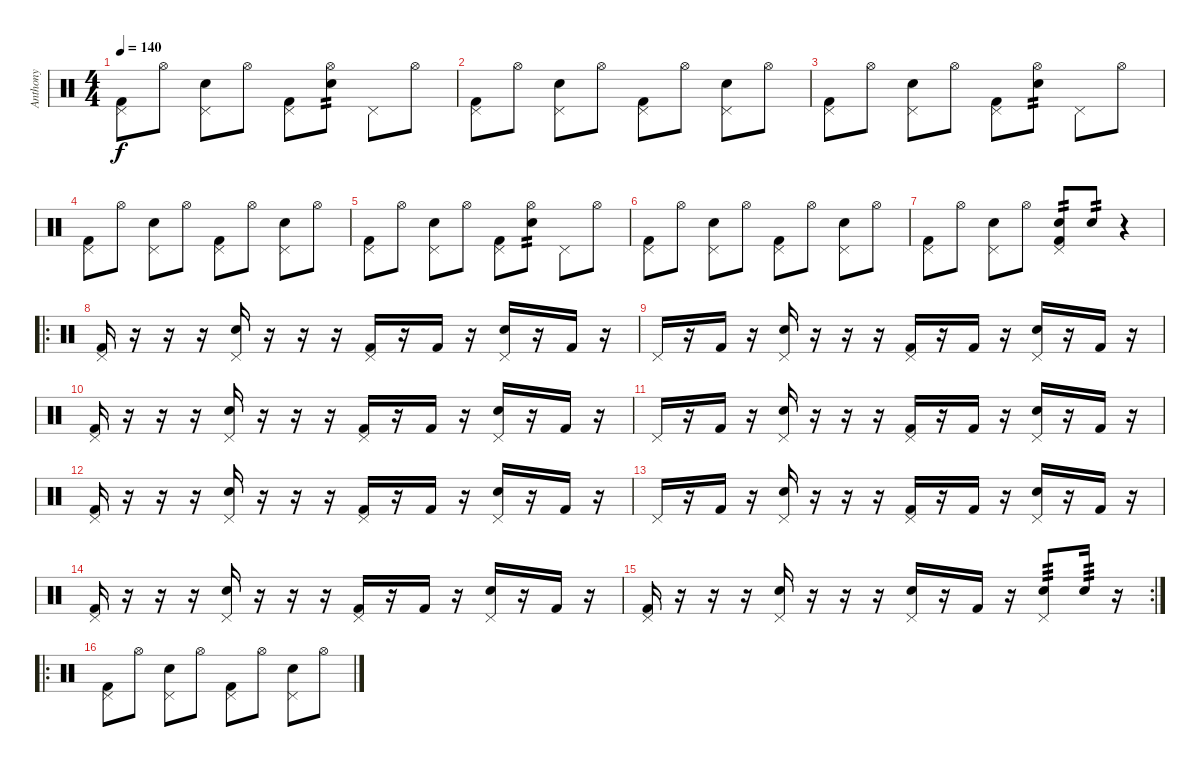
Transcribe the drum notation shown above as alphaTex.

\track ("Anthony" "Anthony") {instrument percussion}
\staff {score}
\articulation defaults
\ts (4 4)
\tempo 140
\clef neutral
\ks c
("Pedal Hi-Hat (hit)" "Kick (hit) 2").8{dy f} "Hi-Hat (open)".8 ("Pedal Hi-Hat (hit)" "Snare (hit) 2").8 "Hi-Hat (open)".8 ("Pedal Hi-Hat (hit)" "Kick (hit) 2").8 ("Hi-Hat (open)" "Snare (hit) 2").8{tp 2} "Pedal Hi-Hat (hit)".8 "Hi-Hat (open)".8 |
("Pedal Hi-Hat (hit)" "Kick (hit) 2").8 "Hi-Hat (open)".8 ("Pedal Hi-Hat (hit)" "Snare (hit) 2").8 "Hi-Hat (open)".8 ("Pedal Hi-Hat (hit)" "Kick (hit) 2").8 "Hi-Hat (open)".8 ("Pedal Hi-Hat (hit)" "Snare (hit) 2").8 "Hi-Hat (open)".8 |
("Pedal Hi-Hat (hit)" "Kick (hit) 2").8 "Hi-Hat (open)".8 ("Pedal Hi-Hat (hit)" "Snare (hit) 2").8 "Hi-Hat (open)".8 ("Pedal Hi-Hat (hit)" "Kick (hit) 2").8 ("Hi-Hat (open)" "Snare (hit) 2").8{tp 2} "Pedal Hi-Hat (hit)".8 "Hi-Hat (open)".8 |
("Pedal Hi-Hat (hit)" "Kick (hit) 2").8 "Hi-Hat (open)".8 ("Pedal Hi-Hat (hit)" "Snare (hit) 2").8 "Hi-Hat (open)".8 ("Pedal Hi-Hat (hit)" "Kick (hit) 2").8 "Hi-Hat (open)".8 ("Pedal Hi-Hat (hit)" "Snare (hit) 2").8 "Hi-Hat (open)".8 |
("Pedal Hi-Hat (hit)" "Kick (hit) 2").8 "Hi-Hat (open)".8 ("Pedal Hi-Hat (hit)" "Snare (hit) 2").8 "Hi-Hat (open)".8 ("Pedal Hi-Hat (hit)" "Kick (hit) 2").8 ("Hi-Hat (open)" "Snare (hit) 2").8{tp 2} "Pedal Hi-Hat (hit)".8 "Hi-Hat (open)".8 |
("Pedal Hi-Hat (hit)" "Kick (hit) 2").8 "Hi-Hat (open)".8 ("Pedal Hi-Hat (hit)" "Snare (hit) 2").8 "Hi-Hat (open)".8 ("Pedal Hi-Hat (hit)" "Kick (hit) 2").8 "Hi-Hat (open)".8 ("Pedal Hi-Hat (hit)" "Snare (hit) 2").8 "Hi-Hat (open)".8 |
("Pedal Hi-Hat (hit)" "Kick (hit) 2").8 "Hi-Hat (open)".8 ("Pedal Hi-Hat (hit)" "Snare (hit) 2").8 "Hi-Hat (open)".8 ("Pedal Hi-Hat (hit)" "Snare (hit) 2" "Kick (hit) 2").8{tp 2} "Snare (hit) 2".8{tp 2} r.4 |
\ro
("Pedal Hi-Hat (hit)" "Kick (hit) 2").16 r.16 r.16 r.16 ("Pedal Hi-Hat (hit)" "Snare (hit) 2").16 r.16 r.16 r.16 ("Pedal Hi-Hat (hit)" "Kick (hit) 2").16 r.16 "Kick (hit) 2".16 r.16 ("Pedal Hi-Hat (hit)" "Snare (hit) 2").16 r.16 "Kick (hit) 2".16 r.16 |
"Pedal Hi-Hat (hit)".16 r.16 "Kick (hit) 2".16 r.16 ("Pedal Hi-Hat (hit)" "Snare (hit) 2").16 r.16 r.16 r.16 ("Pedal Hi-Hat (hit)" "Kick (hit) 2").16 r.16 "Kick (hit) 2".16 r.16 ("Pedal Hi-Hat (hit)" "Snare (hit) 2").16 r.16 "Kick (hit) 2".16 r.16 |
("Pedal Hi-Hat (hit)" "Kick (hit) 2").16 r.16 r.16 r.16 ("Pedal Hi-Hat (hit)" "Snare (hit) 2").16 r.16 r.16 r.16 ("Pedal Hi-Hat (hit)" "Kick (hit) 2").16 r.16 "Kick (hit) 2".16 r.16 ("Pedal Hi-Hat (hit)" "Snare (hit) 2").16 r.16 "Kick (hit) 2".16 r.16 |
"Pedal Hi-Hat (hit)".16 r.16 "Kick (hit) 2".16 r.16 ("Pedal Hi-Hat (hit)" "Snare (hit) 2").16 r.16 r.16 r.16 ("Pedal Hi-Hat (hit)" "Kick (hit) 2").16 r.16 "Kick (hit) 2".16 r.16 ("Pedal Hi-Hat (hit)" "Snare (hit) 2").16 r.16 "Kick (hit) 2".16 r.16 |
("Pedal Hi-Hat (hit)" "Kick (hit) 2").16 r.16 r.16 r.16 ("Pedal Hi-Hat (hit)" "Snare (hit) 2").16 r.16 r.16 r.16 ("Pedal Hi-Hat (hit)" "Kick (hit) 2").16 r.16 "Kick (hit) 2".16 r.16 ("Pedal Hi-Hat (hit)" "Snare (hit) 2").16 r.16 "Kick (hit) 2".16 r.16 |
"Pedal Hi-Hat (hit)".16 r.16 "Kick (hit) 2".16 r.16 ("Pedal Hi-Hat (hit)" "Snare (hit) 2").16 r.16 r.16 r.16 ("Pedal Hi-Hat (hit)" "Kick (hit) 2").16 r.16 "Kick (hit) 2".16 r.16 ("Pedal Hi-Hat (hit)" "Snare (hit) 2").16 r.16 "Kick (hit) 2".16 r.16 |
("Pedal Hi-Hat (hit)" "Kick (hit) 2").16 r.16 r.16 r.16 ("Pedal Hi-Hat (hit)" "Snare (hit) 2").16 r.16 r.16 r.16 ("Pedal Hi-Hat (hit)" "Kick (hit) 2").16 r.16 "Kick (hit) 2".16 r.16 ("Pedal Hi-Hat (hit)" "Snare (hit) 2").16 r.16 "Kick (hit) 2".16 r.16 |
\rc 2
("Pedal Hi-Hat (hit)" "Kick (hit) 2").16 r.16 r.16 r.16 ("Pedal Hi-Hat (hit)" "Snare (hit) 2").16 r.16 r.16 r.16 ("Pedal Hi-Hat (hit)" "Snare (hit) 2").16 r.16 "Kick (hit) 2".16 r.16 ("Pedal Hi-Hat (hit)" "Snare (hit) 2").8{tp 3} "Snare (hit) 2".16{tp 3} r.16 |
\ro
("Pedal Hi-Hat (hit)" "Kick (hit) 2").8 "Hi-Hat (open)".8 ("Pedal Hi-Hat (hit)" "Snare (hit) 2").8 "Hi-Hat (open)".8 ("Pedal Hi-Hat (hit)" "Kick (hit) 2").8 "Hi-Hat (open)".8 ("Pedal Hi-Hat (hit)" "Snare (hit) 2").8 "Hi-Hat (open)".8
